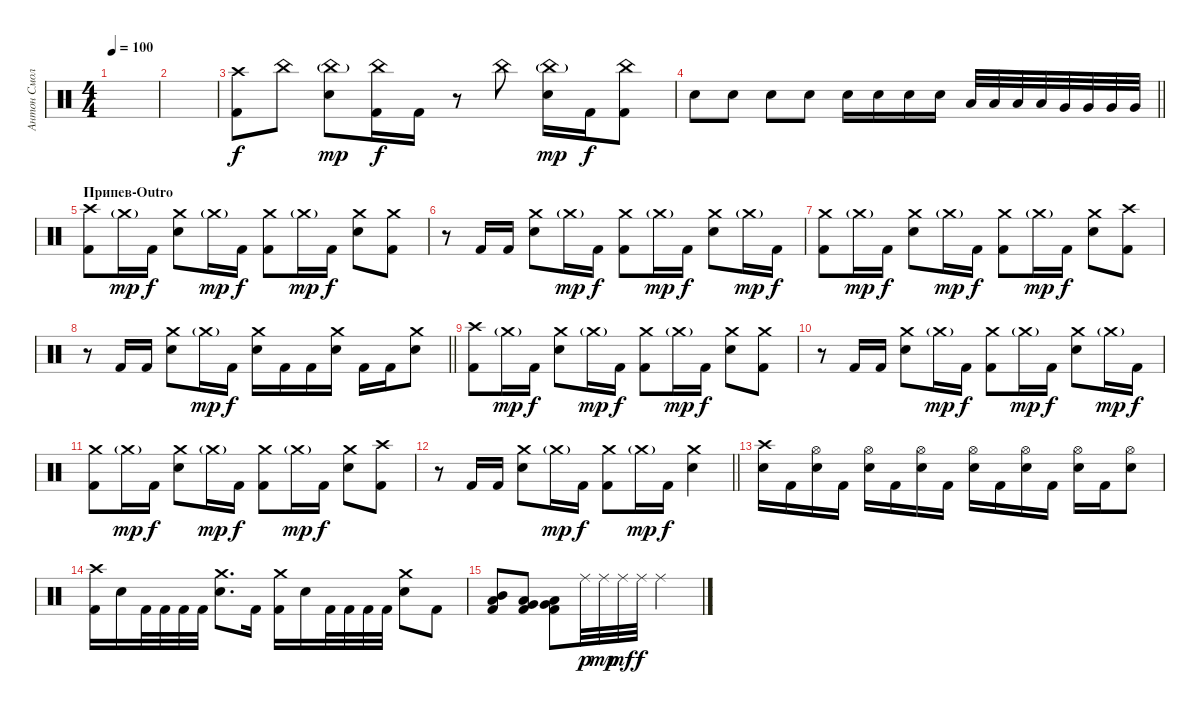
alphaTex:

\track ("Антон Смольянин" "Антон Смол") {instrument percussion}
\staff {score}
\articulation defaults
\ts (4 4)
\tempo 100
\clef neutral
\ks c
|
|
("Crash high (hit)" "Kick (hit) 2").8{dy f} "China (hit)".8 ("China (hit)"{g} "Electric Snare (hit)").8{dy mp} ("China (hit)" "Kick (hit) 2").16{dy f} "Kick (hit) 2".16 r.8 "China (hit)".8 ("China (hit)"{g} "Electric Snare (hit)").16{dy mp} "Kick (hit) 2".16{dy f} ("China (hit)" "Kick (hit) 2").8 |
\barLineRight lightlight "Electric Snare (hit)".8 "Electric Snare (hit)".8 "Electric Snare (hit)".8 "Electric Snare (hit)".8 "Electric Snare (hit)".16 "Electric Snare (hit)".16 "Electric Snare (hit)".16 "Electric Snare (hit)".16 "Low Tom (hit)".32 "Low Tom (hit)".32 "Low Tom (hit)".32 "Low Tom (hit)".32 "Very Low Tom (hit)".32 "Very Low Tom (hit)".32 "Very Low Tom (hit)".32 "Very Low Tom (hit)".32
|
\section ("" "Припев-Outro")
("Crash high (hit)" "Kick (hit) 2").8 "Crash medium (hit)"{g}.16{dy mp} "Kick (hit) 2".16{dy f} ("Crash medium (hit)" "Electric Snare (hit)").8 "Crash medium (hit)"{g}.16{dy mp} "Kick (hit) 2".16{dy f} ("Crash medium (hit)" "Kick (hit) 2").8 "Crash medium (hit)"{g}.16{dy mp} "Kick (hit) 2".16{dy f} ("Crash medium (hit)" "Electric Snare (hit)").8 ("Crash medium (hit)" "Kick (hit) 2").8 |
r.8 "Kick (hit) 2".16 "Kick (hit) 2".16 ("Crash medium (hit)" "Electric Snare (hit)").8 "Crash medium (hit)"{g}.16{dy mp} "Kick (hit) 2".16{dy f} ("Crash medium (hit)" "Kick (hit) 2").8 "Crash medium (hit)"{g}.16{dy mp} "Kick (hit) 2".16{dy f} ("Crash medium (hit)" "Electric Snare (hit)").8 "Crash medium (hit)"{g}.16{dy mp} "Kick (hit) 2".16{dy f} |
("Crash medium (hit)" "Kick (hit) 2").8 "Crash medium (hit)"{g}.16{dy mp} "Kick (hit) 2".16{dy f} ("Crash medium (hit)" "Electric Snare (hit)").8 "Crash medium (hit)"{g}.16{dy mp} "Kick (hit) 2".16{dy f} ("Crash medium (hit)" "Kick (hit) 2").8 "Crash medium (hit)"{g}.16{dy mp} "Kick (hit) 2".16{dy f} ("Crash medium (hit)" "Electric Snare (hit)").8 ("Crash high (hit)" "Kick (hit) 2").8 |
\barLineRight lightlight
r.8 "Kick (hit) 2".16 "Kick (hit) 2".16 ("Crash medium (hit)" "Electric Snare (hit)").8 "Crash medium (hit)"{g}.16{dy mp} "Kick (hit) 2".16{dy f} ("Crash medium (hit)" "Electric Snare (hit)").16 "Kick (hit) 2".16 "Kick (hit) 2".16 ("Crash medium (hit)" "Electric Snare (hit)").16 "Kick (hit) 2".16 "Kick (hit) 2".16 ("Crash medium (hit)" "Electric Snare (hit)").8 |
("Crash high (hit)" "Kick (hit) 2").8 "Crash medium (hit)"{g}.16{dy mp} "Kick (hit) 2".16{dy f} ("Crash medium (hit)" "Electric Snare (hit)").8 "Crash medium (hit)"{g}.16{dy mp} "Kick (hit) 2".16{dy f} ("Crash medium (hit)" "Kick (hit) 2").8 "Crash medium (hit)"{g}.16{dy mp} "Kick (hit) 2".16{dy f} ("Crash medium (hit)" "Electric Snare (hit)").8 ("Crash medium (hit)" "Kick (hit) 2").8 |
r.8 "Kick (hit) 2".16 "Kick (hit) 2".16 ("Crash medium (hit)" "Electric Snare (hit)").8 "Crash medium (hit)"{g}.16{dy mp} "Kick (hit) 2".16{dy f} ("Crash medium (hit)" "Kick (hit) 2").8 "Crash medium (hit)"{g}.16{dy mp} "Kick (hit) 2".16{dy f} ("Crash medium (hit)" "Electric Snare (hit)").8 "Crash medium (hit)"{g}.16{dy mp} "Kick (hit) 2".16{dy f} |
("Crash medium (hit)" "Kick (hit) 2").8 "Crash medium (hit)"{g}.16{dy mp} "Kick (hit) 2".16{dy f} ("Crash medium (hit)" "Electric Snare (hit)").8 "Crash medium (hit)"{g}.16{dy mp} "Kick (hit) 2".16{dy f} ("Crash medium (hit)" "Kick (hit) 2").8 "Crash medium (hit)"{g}.16{dy mp} "Kick (hit) 2".16{dy f} ("Crash medium (hit)" "Electric Snare (hit)").8 ("Crash high (hit)" "Kick (hit) 2").8 |
\barLineRight lightlight
r.8 "Kick (hit) 2".16 "Kick (hit) 2".16 ("Crash medium (hit)" "Electric Snare (hit)").8 "Crash medium (hit)"{g}.16{dy mp} "Kick (hit) 2".16{dy f} ("Crash medium (hit)" "Kick (hit) 2").8 "Crash medium (hit)"{g}.16{dy mp} "Kick (hit) 2".16{dy f} ("Crash medium (hit)" "Electric Snare (hit)").4 |
("Crash high (hit)" "Electric Snare (hit)").16 "Kick (hit) 2".16 ("Hi-Hat (open)" "Electric Snare (hit)").16 "Kick (hit) 2".16 ("Hi-Hat (open)" "Electric Snare (hit)").16 "Kick (hit) 2".16 ("Hi-Hat (open)" "Electric Snare (hit)").16 "Kick (hit) 2".16 ("Hi-Hat (open)" "Electric Snare (hit)").16 "Kick (hit) 2".16 ("Hi-Hat (open)" "Electric Snare (hit)").16 "Kick (hit) 2".16 ("Hi-Hat (open)" "Electric Snare (hit)").16 "Kick (hit) 2".16 ("Hi-Hat (open)" "Electric Snare (hit)").8 |
("Crash high (hit)" "Kick (hit) 2").16 "Electric Snare (hit)".16 "Kick (hit) 2".32 "Kick (hit) 2".32 "Kick (hit) 2".32 "Kick (hit) 2".32 ("Crash medium (hit)" "Electric Snare (hit)").8{d} "Kick (hit) 2".16 ("Crash medium (hit)" "Kick (hit) 2").16 "Electric Snare (hit)".16 "Kick (hit) 2".32 "Kick (hit) 2".32 "Kick (hit) 2".32 "Kick (hit) 2".32 ("Crash medium (hit)" "Electric Snare (hit)").8 "Kick (hit) 2".8 |
("Mid Tom (hit)" "Low Tom (hit)" "Kick (hit) 2").8 ("Low Tom (hit)" "Very Low Tom (hit)" "Kick (hit) 2").8 ("Very Low Tom (hit)" "Low Floor Tom (hit)" "Kick (hit) 2").8 "Ride (middle)".32{dy p} "Ride (middle)".32{dy mp} "Ride (middle)".32{dy mf} "Ride (middle)".32{dy f} "Ride (middle)".2
